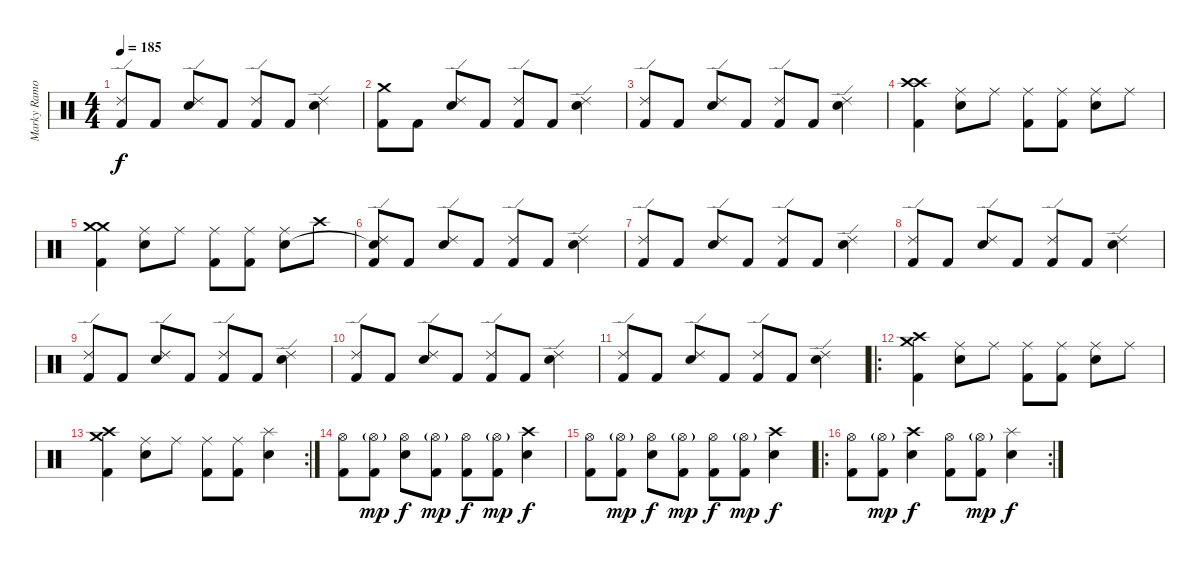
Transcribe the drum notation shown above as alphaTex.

\track ("Marky Ramone" "Marky Ramo") {instrument percussion}
\staff {score}
\articulation defaults
\ts (4 4)
\tempo 185
\clef neutral
\ks c
("Ride (edge) 2" "Kick (hit) 2").8{dy f} "Kick (hit) 2".8 ("Ride (edge) 2" "Electric Snare (hit)").8 "Kick (hit) 2".8 ("Ride (edge) 2" "Kick (hit) 2").8 "Kick (hit) 2".8 ("Ride (edge) 2" "Electric Snare (hit)").4 |
("Crash medium (hit)" "Kick (hit) 2").8 "Kick (hit) 2".8 ("Ride (edge) 2" "Electric Snare (hit)").8 "Kick (hit) 2".8 ("Ride (edge) 2" "Kick (hit) 2").8 "Kick (hit) 2".8 ("Ride (edge) 2" "Electric Snare (hit)").4 |
("Ride (edge) 2" "Kick (hit) 2").8 "Kick (hit) 2".8 ("Ride (edge) 2" "Electric Snare (hit)").8 "Kick (hit) 2".8 ("Ride (edge) 2" "Kick (hit) 2").8 "Kick (hit) 2".8 ("Ride (edge) 2" "Electric Snare (hit)").4 |
("Crash high (hit)" "Crash high (hit)" "Kick (hit) 2").4 ("Ride (middle)" "Electric Snare (hit)").8 "Ride (middle)".8 ("Ride (middle)" "Kick (hit) 2").8 ("Ride (middle)" "Kick (hit) 2").8 ("Ride (middle)" "Electric Snare (hit)").8 "Ride (middle)".8 |
("Crash medium (hit)" "Crash medium (hit)" "Kick (hit) 2").4 ("Ride (middle)" "Electric Snare (hit)").8 "Ride (middle)".8 ("Ride (middle)" "Kick (hit) 2").8 ("Ride (middle)" "Kick (hit) 2").8 ("Ride (middle)" "Electric Snare (hit)").8 "Crash high (hit)".8 |
("Ride (edge) 2" "Snare (hit)"{t} "Kick (hit) 2").8 "Kick (hit) 2".8 ("Ride (edge) 2" "Electric Snare (hit)").8 "Kick (hit) 2".8 ("Ride (edge) 2" "Kick (hit) 2").8 "Kick (hit) 2".8 ("Ride (edge) 2" "Electric Snare (hit)").4 |
("Ride (edge) 2" "Kick (hit) 2").8 "Kick (hit) 2".8 ("Ride (edge) 2" "Electric Snare (hit)").8 "Kick (hit) 2".8 ("Ride (edge) 2" "Kick (hit) 2").8 "Kick (hit) 2".8 ("Ride (edge) 2" "Electric Snare (hit)").4 |
("Ride (edge) 2" "Kick (hit) 2").8 "Kick (hit) 2".8 ("Ride (edge) 2" "Electric Snare (hit)").8 "Kick (hit) 2".8 ("Ride (edge) 2" "Kick (hit) 2").8 "Kick (hit) 2".8 ("Ride (edge) 2" "Electric Snare (hit)").4 |
("Ride (edge) 2" "Kick (hit) 2").8 "Kick (hit) 2".8 ("Ride (edge) 2" "Electric Snare (hit)").8 "Kick (hit) 2".8 ("Ride (edge) 2" "Kick (hit) 2").8 "Kick (hit) 2".8 ("Ride (edge) 2" "Electric Snare (hit)").4 |
("Ride (edge) 2" "Kick (hit) 2").8 "Kick (hit) 2".8 ("Ride (edge) 2" "Electric Snare (hit)").8 "Kick (hit) 2".8 ("Ride (edge) 2" "Kick (hit) 2").8 "Kick (hit) 2".8 ("Ride (edge) 2" "Electric Snare (hit)").4 |
("Ride (edge) 2" "Kick (hit) 2").8 "Kick (hit) 2".8 ("Ride (edge) 2" "Electric Snare (hit)").8 "Kick (hit) 2".8 ("Ride (edge) 2" "Kick (hit) 2").8 "Kick (hit) 2".8 ("Ride (edge) 2" "Electric Snare (hit)").4 |
\ro
("Crash medium (hit)" "Crash high (hit)" "Kick (hit) 2").4 ("Ride (middle)" "Electric Snare (hit)").8 "Ride (middle)".8 ("Ride (middle)" "Kick (hit) 2").8 ("Ride (middle)" "Kick (hit) 2").8 ("Ride (middle)" "Electric Snare (hit)").8 "Ride (middle)".8 |
\rc 2
("Crash medium (hit)" "Crash high (hit)" "Kick (hit) 2").4 ("Ride (middle)" "Electric Snare (hit)").8 "Ride (middle)".8 ("Ride (middle)" "Kick (hit) 2").8 ("Ride (middle)" "Kick (hit) 2").8 ("Splash (hit)" "Electric Snare (hit)").4 |
("Hi-Hat (open)" "Kick (hit) 2").8 ("Hi-Hat (open)"{g} "Kick (hit) 2").8{dy mp} ("Hi-Hat (open)" "Electric Snare (hit)").8{dy f} ("Hi-Hat (open)"{g} "Kick (hit) 2").8{dy mp} ("Hi-Hat (open)" "Kick (hit) 2").8{dy f} ("Hi-Hat (open)"{g} "Kick (hit) 2").8{dy mp} ("Crash high (hit)" "Electric Snare (hit)").4{dy f} |
("Hi-Hat (open)" "Kick (hit) 2").8 ("Hi-Hat (open)"{g} "Kick (hit) 2").8{dy mp} ("Hi-Hat (open)" "Electric Snare (hit)").8{dy f} ("Hi-Hat (open)"{g} "Kick (hit) 2").8{dy mp} ("Hi-Hat (open)" "Kick (hit) 2").8{dy f} ("Hi-Hat (open)"{g} "Kick (hit) 2").8{dy mp} ("Crash high (hit)" "Electric Snare (hit)").4{dy f} |
\ro
\rc 2
("Hi-Hat (open)" "Kick (hit) 2").8 ("Hi-Hat (open)"{g} "Kick (hit) 2").8{dy mp} ("Crash high (hit)" "Electric Snare (hit)").4{dy f} ("Hi-Hat (open)" "Kick (hit) 2").8 ("Hi-Hat (open)"{g} "Kick (hit) 2").8{dy mp} ("Splash (hit)" "Electric Snare (hit)").4{dy f}
